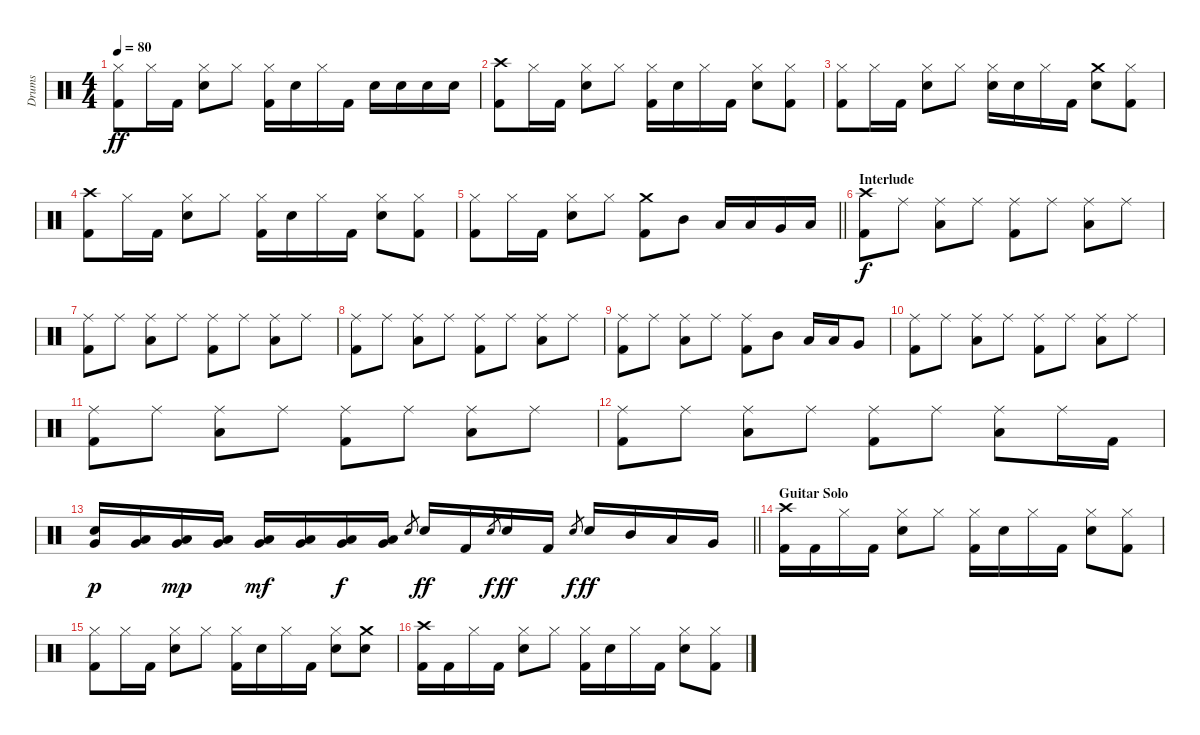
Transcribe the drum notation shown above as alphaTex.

\track ("Drums" "Drums") {instrument percussion}
\staff {score}
\articulation defaults
\ts (4 4)
\tempo 80
\clef neutral
\ks c
("Hi-Hat (closed)" "Kick (hit) 2").8{dy ff} "Hi-Hat (closed)".16 "Kick (hit) 2".16 ("Hi-Hat (closed)" "Snare (hit) 2").8 "Hi-Hat (closed)".8 ("Hi-Hat (closed)" "Kick (hit) 2").16 "Snare (hit) 2".16 "Hi-Hat (closed)".16 "Kick (hit) 2".16 "Snare (hit) 2".16 "Snare (hit) 2".16 "Snare (hit) 2".16 "Snare (hit) 2".16 |
("Crash high (hit)" "Kick (hit) 2").8 "Hi-Hat (closed)".16 "Kick (hit) 2".16 ("Hi-Hat (closed)" "Snare (hit) 2").8 "Hi-Hat (closed)".8 ("Hi-Hat (closed)" "Kick (hit) 2").16 "Snare (hit) 2".16 "Hi-Hat (closed)".16 "Kick (hit) 2".16 ("Hi-Hat (closed)" "Snare (hit) 2").8 ("Hi-Hat (closed)" "Kick (hit) 2").8 |
("Hi-Hat (closed)" "Kick (hit) 2").8 "Hi-Hat (closed)".16 "Kick (hit) 2".16 ("Hi-Hat (closed)" "Snare (hit) 2").8 "Hi-Hat (closed)".8 ("Hi-Hat (closed)" "Snare (hit) 2").16 "Snare (hit) 2".16 "Hi-Hat (closed)".16 "Kick (hit) 2".16 ("Crash medium (hit)" "Snare (hit) 2").8 ("Hi-Hat (closed)" "Kick (hit) 2").8 |
("Crash high (hit)" "Kick (hit) 2").8 "Hi-Hat (closed)".16 "Kick (hit) 2".16 ("Hi-Hat (closed)" "Snare (hit) 2").8 "Hi-Hat (closed)".8 ("Hi-Hat (closed)" "Kick (hit) 2").16 "Snare (hit) 2".16 "Hi-Hat (closed)".16 "Kick (hit) 2".16 ("Hi-Hat (closed)" "Snare (hit) 2").8 ("Hi-Hat (closed)" "Kick (hit) 2").8 |
\barLineRight lightlight
("Hi-Hat (closed)" "Kick (hit) 2").8 "Hi-Hat (closed)".16 "Kick (hit) 2".16 ("Hi-Hat (closed)" "Snare (hit) 2").8 "Hi-Hat (closed)".8 ("Crash medium (hit)" "Kick (hit) 2").8 "Mid Tom (hit)".8 "Low Tom (hit)".16 "Low Tom (hit)".16 "Very Low Tom (hit)".16 "Low Floor Tom (hit)".16 |
\section ("" "Interlude")
("Crash high (hit)" "Kick (hit) 2").8{dy f} "Ride (middle)".8 ("Ride (middle)" "Low Tom (hit)").8 "Ride (middle)".8 ("Ride (middle)" "Kick (hit) 2").8 "Ride (middle)".8 ("Ride (middle)" "Low Tom (hit)").8 "Ride (middle)".8 |
("Ride (middle)" "Kick (hit) 2").8 "Ride (middle)".8 ("Ride (middle)" "Low Tom (hit)").8 "Ride (middle)".8 ("Ride (middle)" "Kick (hit) 2").8 "Ride (middle)".8 ("Ride (middle)" "Low Tom (hit)").8 "Ride (middle)".8 |
("Ride (middle)" "Kick (hit) 2").8 "Ride (middle)".8 ("Ride (middle)" "Low Tom (hit)").8 "Ride (middle)".8 ("Ride (middle)" "Kick (hit) 2").8 "Ride (middle)".8 ("Ride (middle)" "Low Tom (hit)").8 "Ride (middle)".8 |
("Ride (middle)" "Kick (hit) 2").8 "Ride (middle)".8 ("Ride (middle)" "Low Tom (hit)").8 "Ride (middle)".8 ("Ride (middle)" "Kick (hit) 2").8 "Mid Tom (hit)".8 "Low Tom (hit)".16 "Low Tom (hit)".16 "Very Low Tom (hit)".8 |
("Ride (middle)" "Kick (hit) 2").8 "Ride (middle)".8 ("Ride (middle)" "Low Tom (hit)").8 "Ride (middle)".8 ("Ride (middle)" "Kick (hit) 2").8 "Ride (middle)".8 ("Ride (middle)" "Low Tom (hit)").8 "Ride (middle)".8 |
("Ride (middle)" "Kick (hit) 2").8 "Ride (middle)".8 ("Ride (middle)" "Low Tom (hit)").8 "Ride (middle)".8 ("Ride (middle)" "Kick (hit) 2").8 "Ride (middle)".8 ("Ride (middle)" "Low Tom (hit)").8 "Ride (middle)".8 |
("Ride (middle)" "Kick (hit) 2").8 "Ride (middle)".8 ("Ride (middle)" "Low Tom (hit)").8 "Ride (middle)".8 ("Ride (middle)" "Kick (hit) 2").8 "Ride (middle)".8 ("Ride (middle)" "Low Tom (hit)").8 "Ride (middle)".16 "Kick (hit) 2".16 |
\barLineRight lightlight
("Snare (hit) 2" "Very Low Tom (hit)").16{dy p} ("Low Tom (hit)" "Very Low Tom (hit)").16 ("Low Tom (hit)" "Very Low Tom (hit)").16{dy mp} ("Low Tom (hit)" "Very Low Tom (hit)").16 ("Low Tom (hit)" "Very Low Tom (hit)").16{dy mf} ("Low Tom (hit)" "Very Low Tom (hit)").16 ("Low Tom (hit)" "Very Low Tom (hit)").16{dy f} ("Low Tom (hit)" "Very Low Tom (hit)").16 "Snare (hit) 2".8{gr} "Snare (hit) 2".16{dy ff} "Kick (hit) 2".16 "Snare (hit) 2".8{gr dy f} "Snare (hit) 2".16{dy ff} "Kick (hit) 2".16 "Snare (hit) 2".8{gr dy f} "Snare (hit) 2".16{dy ff} "Mid Tom (hit)".16 "Low Tom (hit)".16 "Very Low Tom (hit)".16 |
\section ("" "Guitar Solo")
("Crash high (hit)" "Kick (hit) 2").16 "Kick (hit) 2".16 "Hi-Hat (closed)".16 "Kick (hit) 2".16 ("Hi-Hat (closed)" "Snare (hit) 2").8 "Hi-Hat (closed)".8 ("Hi-Hat (closed)" "Kick (hit) 2").16 "Snare (hit) 2".16 "Hi-Hat (closed)".16 "Kick (hit) 2".16 ("Hi-Hat (closed)" "Snare (hit) 2").8 ("Hi-Hat (closed)" "Kick (hit) 2").8 |
("Hi-Hat (closed)" "Kick (hit) 2").8 "Hi-Hat (closed)".16 "Kick (hit) 2".16 ("Hi-Hat (closed)" "Snare (hit) 2").8 "Hi-Hat (closed)".8 ("Hi-Hat (closed)" "Kick (hit) 2").16 "Snare (hit) 2".16 "Hi-Hat (closed)".16 "Kick (hit) 2".16 ("Hi-Hat (closed)" "Snare (hit) 2").8 ("Crash medium (hit)" "Snare (hit) 2").8 |
("Crash high (hit)" "Kick (hit) 2").16 "Kick (hit) 2".16 "Hi-Hat (closed)".16 "Kick (hit) 2".16 ("Hi-Hat (closed)" "Snare (hit) 2").8 "Hi-Hat (closed)".8 ("Hi-Hat (closed)" "Kick (hit) 2").16 "Snare (hit) 2".16 "Hi-Hat (closed)".16 "Kick (hit) 2".16 ("Hi-Hat (closed)" "Snare (hit) 2").8 ("Hi-Hat (closed)" "Kick (hit) 2").8
